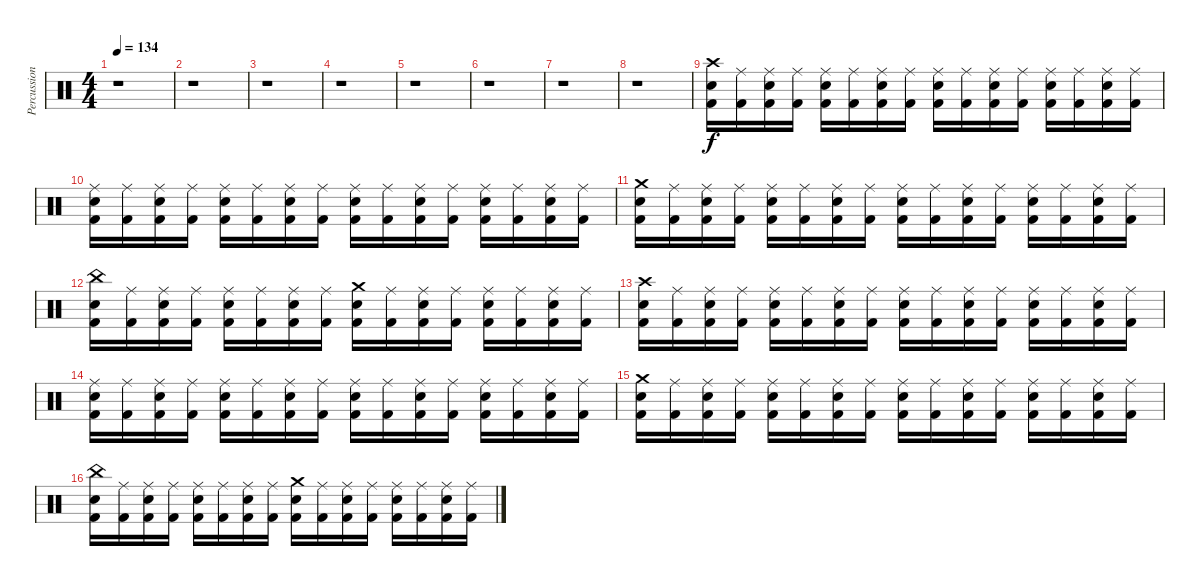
\track ("Percussion" "Percussion") {instrument percussion}
\staff {score}
\articulation defaults
\ts (4 4)
\tempo 134
\clef neutral
\ks c
r.1{dy f} |
r.1 |
r.1 |
r.1 |
r.1 |
r.1 |
r.1 |
r.1 |
("Crash high (hit)" "Snare (hit) 2" "Kick (hit) 2").16 ("Ride (middle)" "Kick (hit) 2").16 ("Ride (middle)" "Snare (hit) 2" "Kick (hit) 2").16 ("Ride (middle)" "Kick (hit) 2").16 ("Ride (middle)" "Snare (hit) 2" "Kick (hit) 2").16 ("Ride (middle)" "Kick (hit) 2").16 ("Ride (middle)" "Snare (hit) 2" "Kick (hit) 2").16 ("Ride (middle)" "Kick (hit) 2").16 ("Ride (middle)" "Snare (hit) 2" "Kick (hit) 2").16 ("Ride (middle)" "Kick (hit) 2").16 ("Ride (middle)" "Snare (hit) 2" "Kick (hit) 2").16 ("Ride (middle)" "Kick (hit) 2").16 ("Ride (middle)" "Snare (hit) 2" "Kick (hit) 2").16 ("Ride (middle)" "Kick (hit) 2").16 ("Ride (middle)" "Snare (hit) 2" "Kick (hit) 2").16 ("Ride (middle)" "Kick (hit) 2").16 |
("Ride (middle)" "Snare (hit) 2" "Kick (hit) 2").16 ("Ride (middle)" "Kick (hit) 2").16 ("Ride (middle)" "Snare (hit) 2" "Kick (hit) 2").16 ("Ride (middle)" "Kick (hit) 2").16 ("Ride (middle)" "Snare (hit) 2" "Kick (hit) 2").16 ("Ride (middle)" "Kick (hit) 2").16 ("Ride (middle)" "Snare (hit) 2" "Kick (hit) 2").16 ("Ride (middle)" "Kick (hit) 2").16 ("Ride (middle)" "Snare (hit) 2" "Kick (hit) 2").16 ("Ride (middle)" "Kick (hit) 2").16 ("Ride (middle)" "Snare (hit) 2" "Kick (hit) 2").16 ("Ride (middle)" "Kick (hit) 2").16 ("Ride (middle)" "Snare (hit) 2" "Kick (hit) 2").16 ("Ride (middle)" "Kick (hit) 2").16 ("Ride (middle)" "Snare (hit) 2" "Kick (hit) 2").16 ("Ride (middle)" "Kick (hit) 2").16 |
("Crash medium (hit)" "Snare (hit) 2" "Kick (hit) 2").16 ("Ride (middle)" "Kick (hit) 2").16 ("Ride (middle)" "Snare (hit) 2" "Kick (hit) 2").16 ("Ride (middle)" "Kick (hit) 2").16 ("Ride (middle)" "Snare (hit) 2" "Kick (hit) 2").16 ("Ride (middle)" "Kick (hit) 2").16 ("Ride (middle)" "Snare (hit) 2" "Kick (hit) 2").16 ("Ride (middle)" "Kick (hit) 2").16 ("Ride (middle)" "Snare (hit) 2" "Kick (hit) 2").16 ("Ride (middle)" "Kick (hit) 2").16 ("Ride (middle)" "Snare (hit) 2" "Kick (hit) 2").16 ("Ride (middle)" "Kick (hit) 2").16 ("Ride (middle)" "Snare (hit) 2" "Kick (hit) 2").16 ("Ride (middle)" "Kick (hit) 2").16 ("Ride (middle)" "Snare (hit) 2" "Kick (hit) 2").16 ("Ride (middle)" "Kick (hit) 2").16 |
("China (hit)" "Snare (hit) 2" "Kick (hit) 2").16 ("Ride (middle)" "Kick (hit) 2").16 ("Ride (middle)" "Snare (hit) 2" "Kick (hit) 2").16 ("Ride (middle)" "Kick (hit) 2").16 ("Ride (middle)" "Snare (hit) 2" "Kick (hit) 2").16 ("Ride (middle)" "Kick (hit) 2").16 ("Ride (middle)" "Snare (hit) 2" "Kick (hit) 2").16 ("Ride (middle)" "Kick (hit) 2").16 ("Crash medium (hit)" "Snare (hit) 2" "Kick (hit) 2").16 ("Ride (middle)" "Kick (hit) 2").16 ("Ride (middle)" "Snare (hit) 2" "Kick (hit) 2").16 ("Ride (middle)" "Kick (hit) 2").16 ("Ride (middle)" "Snare (hit) 2" "Kick (hit) 2").16 ("Ride (middle)" "Kick (hit) 2").16 ("Ride (middle)" "Snare (hit) 2" "Kick (hit) 2").16 ("Ride (middle)" "Kick (hit) 2").16 |
("Crash high (hit)" "Snare (hit) 2" "Kick (hit) 2").16 ("Ride (middle)" "Kick (hit) 2").16 ("Ride (middle)" "Snare (hit) 2" "Kick (hit) 2").16 ("Ride (middle)" "Kick (hit) 2").16 ("Ride (middle)" "Snare (hit) 2" "Kick (hit) 2").16 ("Ride (middle)" "Kick (hit) 2").16 ("Ride (middle)" "Snare (hit) 2" "Kick (hit) 2").16 ("Ride (middle)" "Kick (hit) 2").16 ("Ride (middle)" "Snare (hit) 2" "Kick (hit) 2").16 ("Ride (middle)" "Kick (hit) 2").16 ("Ride (middle)" "Snare (hit) 2" "Kick (hit) 2").16 ("Ride (middle)" "Kick (hit) 2").16 ("Ride (middle)" "Snare (hit) 2" "Kick (hit) 2").16 ("Ride (middle)" "Kick (hit) 2").16 ("Ride (middle)" "Snare (hit) 2" "Kick (hit) 2").16 ("Ride (middle)" "Kick (hit) 2").16 |
("Ride (middle)" "Snare (hit) 2" "Kick (hit) 2").16 ("Ride (middle)" "Kick (hit) 2").16 ("Ride (middle)" "Snare (hit) 2" "Kick (hit) 2").16 ("Ride (middle)" "Kick (hit) 2").16 ("Ride (middle)" "Snare (hit) 2" "Kick (hit) 2").16 ("Ride (middle)" "Kick (hit) 2").16 ("Ride (middle)" "Snare (hit) 2" "Kick (hit) 2").16 ("Ride (middle)" "Kick (hit) 2").16 ("Ride (middle)" "Snare (hit) 2" "Kick (hit) 2").16 ("Ride (middle)" "Kick (hit) 2").16 ("Ride (middle)" "Snare (hit) 2" "Kick (hit) 2").16 ("Ride (middle)" "Kick (hit) 2").16 ("Ride (middle)" "Snare (hit) 2" "Kick (hit) 2").16 ("Ride (middle)" "Kick (hit) 2").16 ("Ride (middle)" "Snare (hit) 2" "Kick (hit) 2").16 ("Ride (middle)" "Kick (hit) 2").16 |
("Crash medium (hit)" "Snare (hit) 2" "Kick (hit) 2").16 ("Ride (middle)" "Kick (hit) 2").16 ("Ride (middle)" "Snare (hit) 2" "Kick (hit) 2").16 ("Ride (middle)" "Kick (hit) 2").16 ("Ride (middle)" "Snare (hit) 2" "Kick (hit) 2").16 ("Ride (middle)" "Kick (hit) 2").16 ("Ride (middle)" "Snare (hit) 2" "Kick (hit) 2").16 ("Ride (middle)" "Kick (hit) 2").16 ("Ride (middle)" "Snare (hit) 2" "Kick (hit) 2").16 ("Ride (middle)" "Kick (hit) 2").16 ("Ride (middle)" "Snare (hit) 2" "Kick (hit) 2").16 ("Ride (middle)" "Kick (hit) 2").16 ("Ride (middle)" "Snare (hit) 2" "Kick (hit) 2").16 ("Ride (middle)" "Kick (hit) 2").16 ("Ride (middle)" "Snare (hit) 2" "Kick (hit) 2").16 ("Ride (middle)" "Kick (hit) 2").16 |
("China (hit)" "Snare (hit) 2" "Kick (hit) 2").16 ("Ride (middle)" "Kick (hit) 2").16 ("Ride (middle)" "Snare (hit) 2" "Kick (hit) 2").16 ("Ride (middle)" "Kick (hit) 2").16 ("Ride (middle)" "Snare (hit) 2" "Kick (hit) 2").16 ("Ride (middle)" "Kick (hit) 2").16 ("Ride (middle)" "Snare (hit) 2" "Kick (hit) 2").16 ("Ride (middle)" "Kick (hit) 2").16 ("Crash medium (hit)" "Snare (hit) 2" "Kick (hit) 2").16 ("Ride (middle)" "Kick (hit) 2").16 ("Ride (middle)" "Snare (hit) 2" "Kick (hit) 2").16 ("Ride (middle)" "Kick (hit) 2").16 ("Ride (middle)" "Snare (hit) 2" "Kick (hit) 2").16 ("Ride (middle)" "Kick (hit) 2").16 ("Ride (middle)" "Snare (hit) 2" "Kick (hit) 2").16 ("Ride (middle)" "Kick (hit) 2").16
